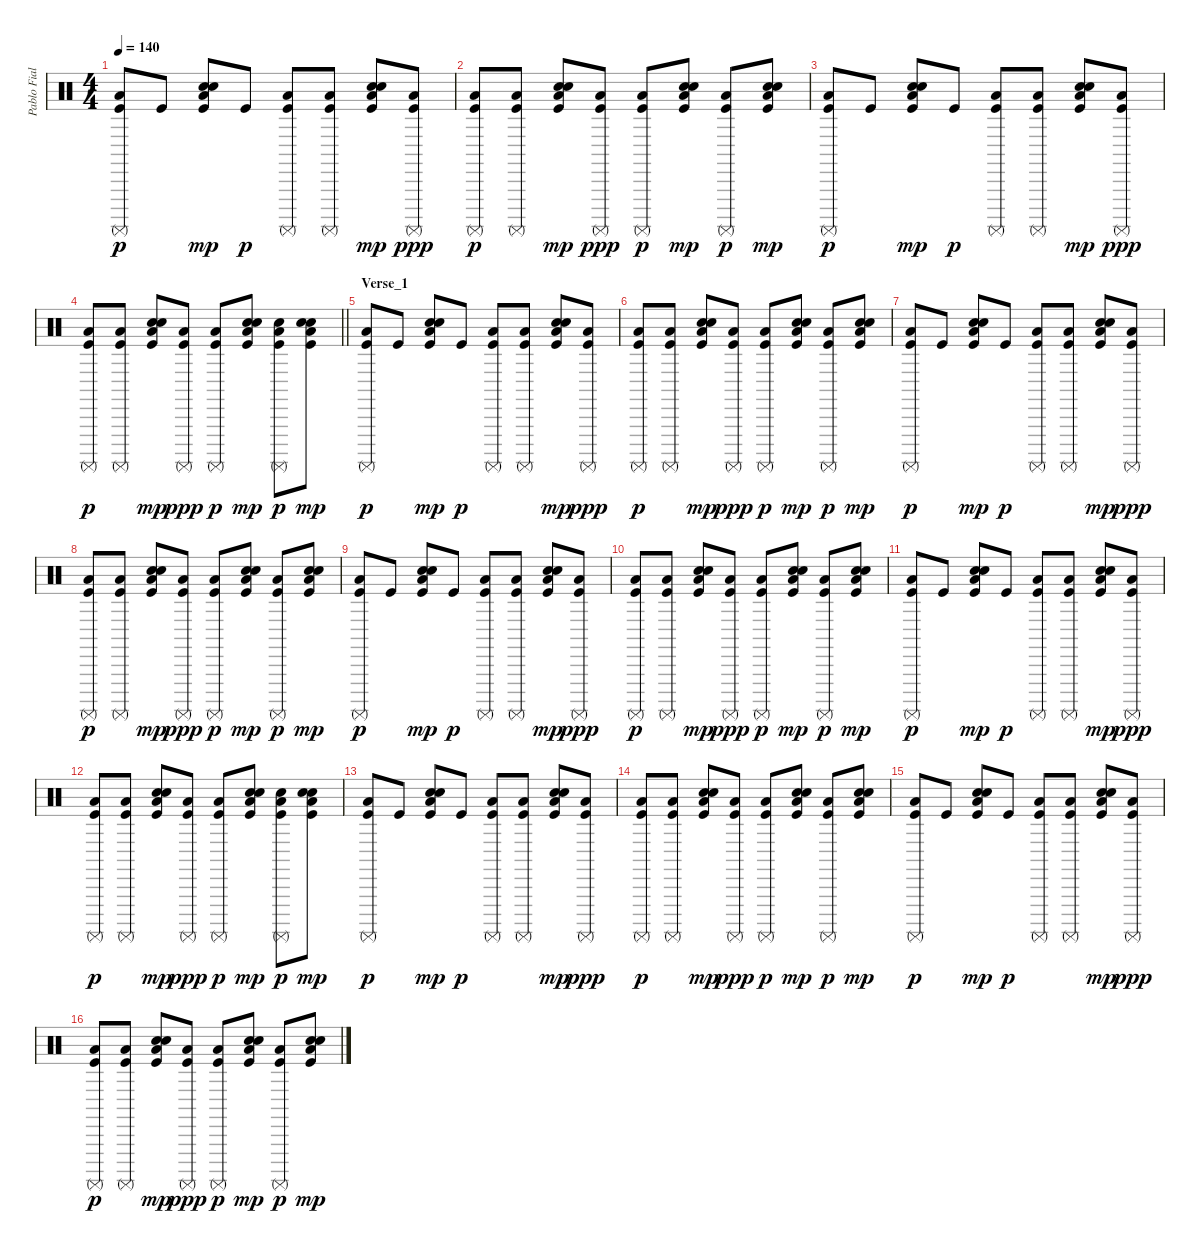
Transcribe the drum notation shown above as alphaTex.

\track ("Pablo Fiallo" "Pablo Fial") {instrument percussion}
\staff {score}
\articulation defaults
\ts (4 4)
\tempo 140
\clef neutral
\ks c
("Low Floor Tom (hit)" "Kick (hit)" "Surdo (mute)").8{dy p} "Kick (hit)".8 ("Low Floor Tom (hit)" "Electric Snare (hit)" "Kick (hit)" "Snare (hit) 2").8{dy mp} "Kick (hit)".8{dy p} ("Low Floor Tom (hit)" "Kick (hit)" "Surdo (mute)").8 ("Low Floor Tom (hit)" "Kick (hit)" "Surdo (mute)").8 ("Low Floor Tom (hit)" "Electric Snare (hit)" "Kick (hit)" "Snare (hit) 2").8{dy mp} ("Low Floor Tom (hit)" "Kick (hit)" "Surdo (mute)").8{dy ppp} |
("Low Floor Tom (hit)" "Kick (hit)" "Surdo (mute)").8{dy p} ("Low Floor Tom (hit)" "Kick (hit)" "Surdo (mute)").8 ("Low Floor Tom (hit)" "Electric Snare (hit)" "Kick (hit)" "Snare (hit) 2").8{dy mp} ("Low Floor Tom (hit)" "Kick (hit)" "Surdo (mute)").8{dy ppp} ("Low Floor Tom (hit)" "Kick (hit)" "Surdo (mute)").8{dy p} ("Low Floor Tom (hit)" "Electric Snare (hit)" "Kick (hit)" "Snare (hit) 2").8{dy mp} ("Low Floor Tom (hit)" "Kick (hit)" "Surdo (mute)").8{dy p} ("Low Floor Tom (hit)" "Electric Snare (hit)" "Kick (hit)" "Snare (hit) 2").8{dy mp} |
("Low Floor Tom (hit)" "Kick (hit)" "Surdo (mute)").8{dy p} "Kick (hit)".8 ("Low Floor Tom (hit)" "Electric Snare (hit)" "Kick (hit)" "Snare (hit) 2").8{dy mp} "Kick (hit)".8{dy p} ("Low Floor Tom (hit)" "Kick (hit)" "Surdo (mute)").8 ("Low Floor Tom (hit)" "Kick (hit)" "Surdo (mute)").8 ("Low Floor Tom (hit)" "Electric Snare (hit)" "Kick (hit)" "Snare (hit) 2").8{dy mp} ("Low Floor Tom (hit)" "Kick (hit)" "Surdo (mute)").8{dy ppp} |
\barLineRight lightlight
("Low Floor Tom (hit)" "Kick (hit)" "Surdo (mute)").8{dy p} ("Low Floor Tom (hit)" "Kick (hit)" "Surdo (mute)").8 ("Low Floor Tom (hit)" "Electric Snare (hit)" "Kick (hit)" "Snare (hit) 2").8{dy mp} ("Low Floor Tom (hit)" "Kick (hit)" "Surdo (mute)").8{dy ppp} ("Low Floor Tom (hit)" "Kick (hit)" "Surdo (mute)").8{dy p} ("Low Floor Tom (hit)" "Electric Snare (hit)" "Kick (hit)" "Snare (hit) 2").8{dy mp} ("Low Floor Tom (hit)" "Electric Snare (hit)" "Kick (hit)" "Surdo (mute)").8{dy p} ("Low Floor Tom (hit)" "Electric Snare (hit)" "Kick (hit)" "Snare (hit) 2").8{dy mp} |
\section ("" "Verse_1")
("Low Floor Tom (hit)" "Kick (hit)" "Surdo (mute)").8{dy p} "Kick (hit)".8 ("Low Floor Tom (hit)" "Electric Snare (hit)" "Kick (hit)" "Snare (hit) 2").8{dy mp} "Kick (hit)".8{dy p} ("Low Floor Tom (hit)" "Kick (hit)" "Surdo (mute)").8 ("Low Floor Tom (hit)" "Kick (hit)" "Surdo (mute)").8 ("Low Floor Tom (hit)" "Electric Snare (hit)" "Kick (hit)" "Snare (hit) 2").8{dy mp} ("Low Floor Tom (hit)" "Kick (hit)" "Surdo (mute)").8{dy ppp} |
("Low Floor Tom (hit)" "Kick (hit)" "Surdo (mute)").8{dy p} ("Low Floor Tom (hit)" "Kick (hit)" "Surdo (mute)").8 ("Low Floor Tom (hit)" "Electric Snare (hit)" "Kick (hit)" "Snare (hit) 2").8{dy mp} ("Low Floor Tom (hit)" "Kick (hit)" "Surdo (mute)").8{dy ppp} ("Low Floor Tom (hit)" "Kick (hit)" "Surdo (mute)").8{dy p} ("Low Floor Tom (hit)" "Electric Snare (hit)" "Kick (hit)" "Snare (hit) 2").8{dy mp} ("Low Floor Tom (hit)" "Kick (hit)" "Surdo (mute)").8{dy p} ("Low Floor Tom (hit)" "Electric Snare (hit)" "Kick (hit)" "Snare (hit) 2").8{dy mp} |
("Low Floor Tom (hit)" "Kick (hit)" "Surdo (mute)").8{dy p} "Kick (hit)".8 ("Low Floor Tom (hit)" "Electric Snare (hit)" "Kick (hit)" "Snare (hit) 2").8{dy mp} "Kick (hit)".8{dy p} ("Low Floor Tom (hit)" "Kick (hit)" "Surdo (mute)").8 ("Low Floor Tom (hit)" "Kick (hit)" "Surdo (mute)").8 ("Low Floor Tom (hit)" "Electric Snare (hit)" "Kick (hit)" "Snare (hit) 2").8{dy mp} ("Low Floor Tom (hit)" "Kick (hit)" "Surdo (mute)").8{dy ppp} |
("Low Floor Tom (hit)" "Kick (hit)" "Surdo (mute)").8{dy p} ("Low Floor Tom (hit)" "Kick (hit)" "Surdo (mute)").8 ("Low Floor Tom (hit)" "Electric Snare (hit)" "Kick (hit)" "Snare (hit) 2").8{dy mp} ("Low Floor Tom (hit)" "Kick (hit)" "Surdo (mute)").8{dy ppp} ("Low Floor Tom (hit)" "Kick (hit)" "Surdo (mute)").8{dy p} ("Low Floor Tom (hit)" "Electric Snare (hit)" "Kick (hit)" "Snare (hit) 2").8{dy mp} ("Low Floor Tom (hit)" "Kick (hit)" "Surdo (mute)").8{dy p} ("Low Floor Tom (hit)" "Electric Snare (hit)" "Kick (hit)" "Snare (hit) 2").8{dy mp} |
("Low Floor Tom (hit)" "Kick (hit)" "Surdo (mute)").8{dy p} "Kick (hit)".8 ("Low Floor Tom (hit)" "Electric Snare (hit)" "Kick (hit)" "Snare (hit) 2").8{dy mp} "Kick (hit)".8{dy p} ("Low Floor Tom (hit)" "Kick (hit)" "Surdo (mute)").8 ("Low Floor Tom (hit)" "Kick (hit)" "Surdo (mute)").8 ("Low Floor Tom (hit)" "Electric Snare (hit)" "Kick (hit)" "Snare (hit) 2").8{dy mp} ("Low Floor Tom (hit)" "Kick (hit)" "Surdo (mute)").8{dy ppp} |
("Low Floor Tom (hit)" "Kick (hit)" "Surdo (mute)").8{dy p} ("Low Floor Tom (hit)" "Kick (hit)" "Surdo (mute)").8 ("Low Floor Tom (hit)" "Electric Snare (hit)" "Kick (hit)" "Snare (hit) 2").8{dy mp} ("Low Floor Tom (hit)" "Kick (hit)" "Surdo (mute)").8{dy ppp} ("Low Floor Tom (hit)" "Kick (hit)" "Surdo (mute)").8{dy p} ("Low Floor Tom (hit)" "Electric Snare (hit)" "Kick (hit)" "Snare (hit) 2").8{dy mp} ("Low Floor Tom (hit)" "Kick (hit)" "Surdo (mute)").8{dy p} ("Low Floor Tom (hit)" "Electric Snare (hit)" "Kick (hit)" "Snare (hit) 2").8{dy mp} |
("Low Floor Tom (hit)" "Kick (hit)" "Surdo (mute)").8{dy p} "Kick (hit)".8 ("Low Floor Tom (hit)" "Electric Snare (hit)" "Kick (hit)" "Snare (hit) 2").8{dy mp} "Kick (hit)".8{dy p} ("Low Floor Tom (hit)" "Kick (hit)" "Surdo (mute)").8 ("Low Floor Tom (hit)" "Kick (hit)" "Surdo (mute)").8 ("Low Floor Tom (hit)" "Electric Snare (hit)" "Kick (hit)" "Snare (hit) 2").8{dy mp} ("Low Floor Tom (hit)" "Kick (hit)" "Surdo (mute)").8{dy ppp} |
("Low Floor Tom (hit)" "Kick (hit)" "Surdo (mute)").8{dy p} ("Low Floor Tom (hit)" "Kick (hit)" "Surdo (mute)").8 ("Low Floor Tom (hit)" "Electric Snare (hit)" "Kick (hit)" "Snare (hit) 2").8{dy mp} ("Low Floor Tom (hit)" "Kick (hit)" "Surdo (mute)").8{dy ppp} ("Low Floor Tom (hit)" "Kick (hit)" "Surdo (mute)").8{dy p} ("Low Floor Tom (hit)" "Electric Snare (hit)" "Kick (hit)" "Snare (hit) 2").8{dy mp} ("Low Floor Tom (hit)" "Electric Snare (hit)" "Kick (hit)" "Surdo (mute)").8{dy p} ("Low Floor Tom (hit)" "Electric Snare (hit)" "Kick (hit)" "Snare (hit) 2").8{dy mp} |
("Low Floor Tom (hit)" "Kick (hit)" "Surdo (mute)").8{dy p} "Kick (hit)".8 ("Low Floor Tom (hit)" "Electric Snare (hit)" "Kick (hit)" "Snare (hit) 2").8{dy mp} "Kick (hit)".8{dy p} ("Low Floor Tom (hit)" "Kick (hit)" "Surdo (mute)").8 ("Low Floor Tom (hit)" "Kick (hit)" "Surdo (mute)").8 ("Low Floor Tom (hit)" "Electric Snare (hit)" "Kick (hit)" "Snare (hit) 2").8{dy mp} ("Low Floor Tom (hit)" "Kick (hit)" "Surdo (mute)").8{dy ppp} |
("Low Floor Tom (hit)" "Kick (hit)" "Surdo (mute)").8{dy p} ("Low Floor Tom (hit)" "Kick (hit)" "Surdo (mute)").8 ("Low Floor Tom (hit)" "Electric Snare (hit)" "Kick (hit)" "Snare (hit) 2").8{dy mp} ("Low Floor Tom (hit)" "Kick (hit)" "Surdo (mute)").8{dy ppp} ("Low Floor Tom (hit)" "Kick (hit)" "Surdo (mute)").8{dy p} ("Low Floor Tom (hit)" "Electric Snare (hit)" "Kick (hit)" "Snare (hit) 2").8{dy mp} ("Low Floor Tom (hit)" "Kick (hit)" "Surdo (mute)").8{dy p} ("Low Floor Tom (hit)" "Electric Snare (hit)" "Kick (hit)" "Snare (hit) 2").8{dy mp} |
("Low Floor Tom (hit)" "Kick (hit)" "Surdo (mute)").8{dy p} "Kick (hit)".8 ("Low Floor Tom (hit)" "Electric Snare (hit)" "Kick (hit)" "Snare (hit) 2").8{dy mp} "Kick (hit)".8{dy p} ("Low Floor Tom (hit)" "Kick (hit)" "Surdo (mute)").8 ("Low Floor Tom (hit)" "Kick (hit)" "Surdo (mute)").8 ("Low Floor Tom (hit)" "Electric Snare (hit)" "Kick (hit)" "Snare (hit) 2").8{dy mp} ("Low Floor Tom (hit)" "Kick (hit)" "Surdo (mute)").8{dy ppp} |
("Low Floor Tom (hit)" "Kick (hit)" "Surdo (mute)").8{dy p} ("Low Floor Tom (hit)" "Kick (hit)" "Surdo (mute)").8 ("Low Floor Tom (hit)" "Electric Snare (hit)" "Kick (hit)" "Snare (hit) 2").8{dy mp} ("Low Floor Tom (hit)" "Kick (hit)" "Surdo (mute)").8{dy ppp} ("Low Floor Tom (hit)" "Kick (hit)" "Surdo (mute)").8{dy p} ("Low Floor Tom (hit)" "Electric Snare (hit)" "Kick (hit)" "Snare (hit) 2").8{dy mp} ("Low Floor Tom (hit)" "Kick (hit)" "Surdo (mute)").8{dy p} ("Low Floor Tom (hit)" "Electric Snare (hit)" "Kick (hit)" "Snare (hit) 2").8{dy mp}
